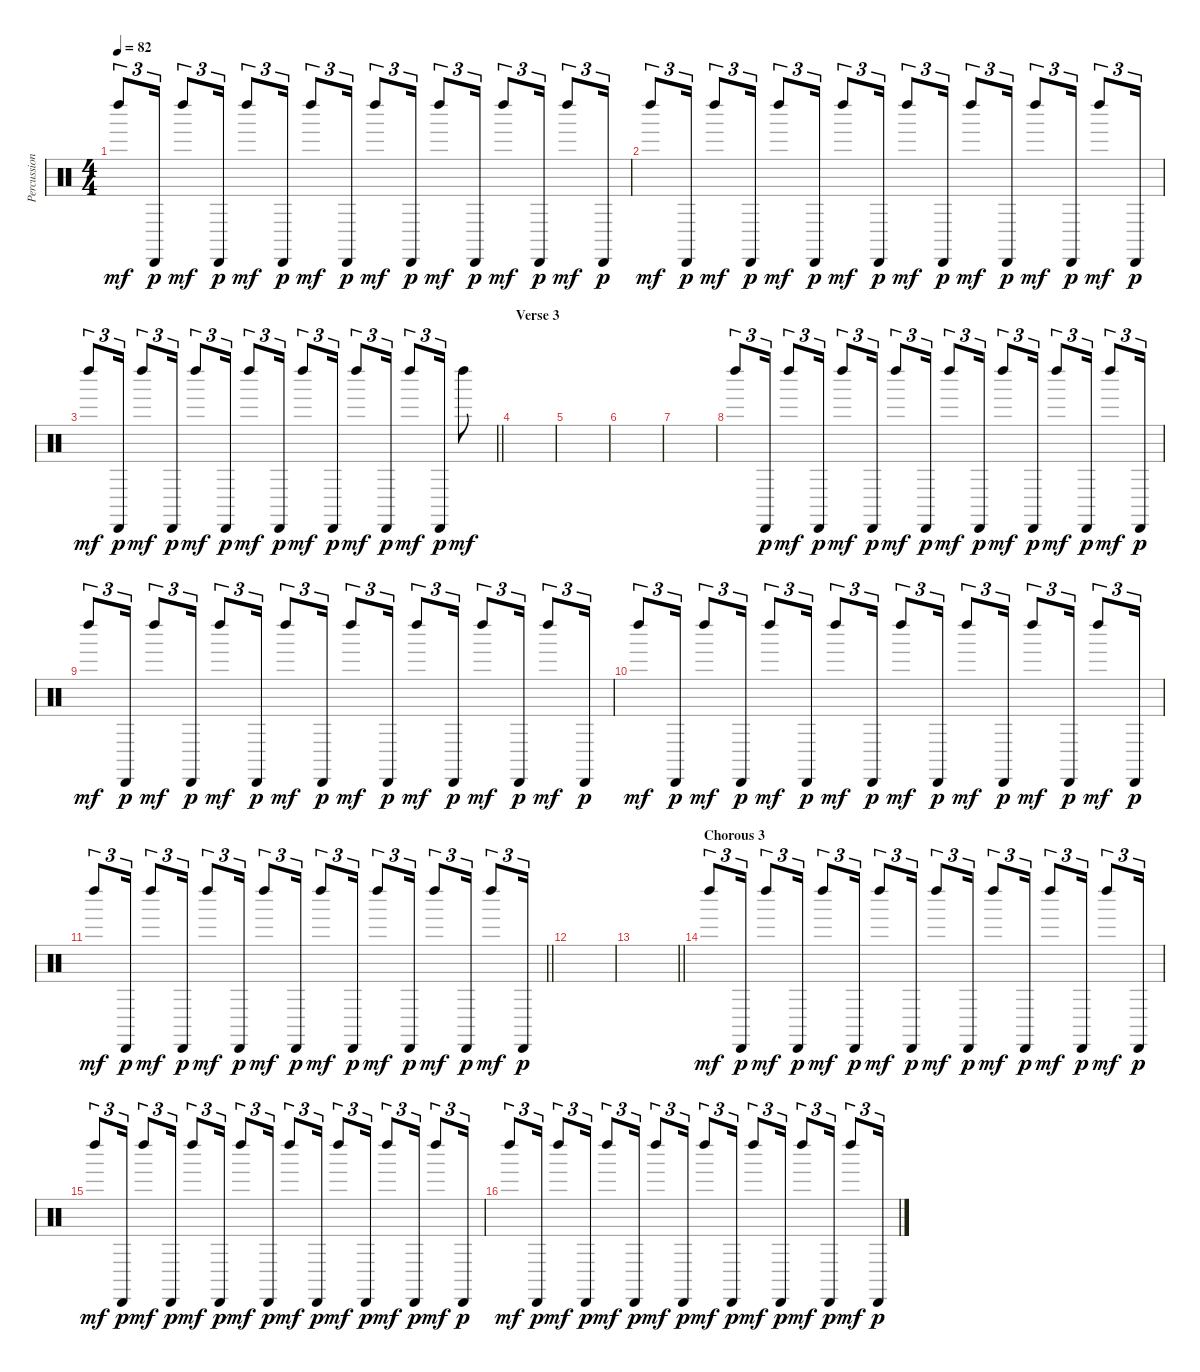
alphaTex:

\track ("Percussion" "Percussion") {instrument percussion}
\staff {score}
\articulation defaults
\ts (4 4)
\tempo 82
\clef neutral
\ks c "Left Maraca (hit)".8{tu (3 2) dy mf} "Cabasa (hit)".16{tu (3 2) dy p} "Left Maraca (hit)".8{tu (3 2) dy mf} "Cabasa (hit)".16{tu (3 2) dy p} "Left Maraca (hit)".8{tu (3 2) dy mf} "Cabasa (hit)".16{tu (3 2) dy p} "Left Maraca (hit)".8{tu (3 2) dy mf} "Cabasa (hit)".16{tu (3 2) dy p} "Left Maraca (hit)".8{tu (3 2) dy mf} "Cabasa (hit)".16{tu (3 2) dy p} "Left Maraca (hit)".8{tu (3 2) dy mf} "Cabasa (hit)".16{tu (3 2) dy p} "Left Maraca (hit)".8{tu (3 2) dy mf} "Cabasa (hit)".16{tu (3 2) dy p} "Left Maraca (hit)".8{tu (3 2) dy mf} "Cabasa (hit)".16{tu (3 2) dy p}
|
"Left Maraca (hit)".8{tu (3 2) dy mf} "Cabasa (hit)".16{tu (3 2) dy p} "Left Maraca (hit)".8{tu (3 2) dy mf} "Cabasa (hit)".16{tu (3 2) dy p} "Left Maraca (hit)".8{tu (3 2) dy mf} "Cabasa (hit)".16{tu (3 2) dy p} "Left Maraca (hit)".8{tu (3 2) dy mf} "Cabasa (hit)".16{tu (3 2) dy p} "Left Maraca (hit)".8{tu (3 2) dy mf} "Cabasa (hit)".16{tu (3 2) dy p} "Left Maraca (hit)".8{tu (3 2) dy mf} "Cabasa (hit)".16{tu (3 2) dy p} "Left Maraca (hit)".8{tu (3 2) dy mf} "Cabasa (hit)".16{tu (3 2) dy p} "Left Maraca (hit)".8{tu (3 2) dy mf} "Cabasa (hit)".16{tu (3 2) dy p} |
\barLineRight lightlight "Left Maraca (hit)".8{tu (3 2) dy mf} "Cabasa (hit)".16{tu (3 2) dy p} "Left Maraca (hit)".8{tu (3 2) dy mf} "Cabasa (hit)".16{tu (3 2) dy p} "Left Maraca (hit)".8{tu (3 2) dy mf} "Cabasa (hit)".16{tu (3 2) dy p} "Left Maraca (hit)".8{tu (3 2) dy mf} "Cabasa (hit)".16{tu (3 2) dy p} "Left Maraca (hit)".8{tu (3 2) dy mf} "Cabasa (hit)".16{tu (3 2) dy p} "Left Maraca (hit)".8{tu (3 2) dy mf} "Cabasa (hit)".16{tu (3 2) dy p} "Left Maraca (hit)".8{tu (3 2) dy mf} "Cabasa (hit)".16{tu (3 2) dy p} "Left Maraca (hit)".8{dy mf}
|
\section ("" "Verse 3")
|
|
|
|
"Left Maraca (hit)".8{tu (3 2)} "Cabasa (hit)".16{tu (3 2) dy p} "Left Maraca (hit)".8{tu (3 2) dy mf} "Cabasa (hit)".16{tu (3 2) dy p} "Left Maraca (hit)".8{tu (3 2) dy mf} "Cabasa (hit)".16{tu (3 2) dy p} "Left Maraca (hit)".8{tu (3 2) dy mf} "Cabasa (hit)".16{tu (3 2) dy p} "Left Maraca (hit)".8{tu (3 2) dy mf} "Cabasa (hit)".16{tu (3 2) dy p} "Left Maraca (hit)".8{tu (3 2) dy mf} "Cabasa (hit)".16{tu (3 2) dy p} "Left Maraca (hit)".8{tu (3 2) dy mf} "Cabasa (hit)".16{tu (3 2) dy p} "Left Maraca (hit)".8{tu (3 2) dy mf} "Cabasa (hit)".16{tu (3 2) dy p} |
"Left Maraca (hit)".8{tu (3 2) dy mf} "Cabasa (hit)".16{tu (3 2) dy p} "Left Maraca (hit)".8{tu (3 2) dy mf} "Cabasa (hit)".16{tu (3 2) dy p} "Left Maraca (hit)".8{tu (3 2) dy mf} "Cabasa (hit)".16{tu (3 2) dy p} "Left Maraca (hit)".8{tu (3 2) dy mf} "Cabasa (hit)".16{tu (3 2) dy p} "Left Maraca (hit)".8{tu (3 2) dy mf} "Cabasa (hit)".16{tu (3 2) dy p} "Left Maraca (hit)".8{tu (3 2) dy mf} "Cabasa (hit)".16{tu (3 2) dy p} "Left Maraca (hit)".8{tu (3 2) dy mf} "Cabasa (hit)".16{tu (3 2) dy p} "Left Maraca (hit)".8{tu (3 2) dy mf} "Cabasa (hit)".16{tu (3 2) dy p} |
"Left Maraca (hit)".8{tu (3 2) dy mf} "Cabasa (hit)".16{tu (3 2) dy p} "Left Maraca (hit)".8{tu (3 2) dy mf} "Cabasa (hit)".16{tu (3 2) dy p} "Left Maraca (hit)".8{tu (3 2) dy mf} "Cabasa (hit)".16{tu (3 2) dy p} "Left Maraca (hit)".8{tu (3 2) dy mf} "Cabasa (hit)".16{tu (3 2) dy p} "Left Maraca (hit)".8{tu (3 2) dy mf} "Cabasa (hit)".16{tu (3 2) dy p} "Left Maraca (hit)".8{tu (3 2) dy mf} "Cabasa (hit)".16{tu (3 2) dy p} "Left Maraca (hit)".8{tu (3 2) dy mf} "Cabasa (hit)".16{tu (3 2) dy p} "Left Maraca (hit)".8{tu (3 2) dy mf} "Cabasa (hit)".16{tu (3 2) dy p} |
\barLineRight lightlight "Left Maraca (hit)".8{tu (3 2) dy mf} "Cabasa (hit)".16{tu (3 2) dy p} "Left Maraca (hit)".8{tu (3 2) dy mf} "Cabasa (hit)".16{tu (3 2) dy p} "Left Maraca (hit)".8{tu (3 2) dy mf} "Cabasa (hit)".16{tu (3 2) dy p} "Left Maraca (hit)".8{tu (3 2) dy mf} "Cabasa (hit)".16{tu (3 2) dy p} "Left Maraca (hit)".8{tu (3 2) dy mf} "Cabasa (hit)".16{tu (3 2) dy p} "Left Maraca (hit)".8{tu (3 2) dy mf} "Cabasa (hit)".16{tu (3 2) dy p} "Left Maraca (hit)".8{tu (3 2) dy mf} "Cabasa (hit)".16{tu (3 2) dy p} "Left Maraca (hit)".8{tu (3 2) dy mf} "Cabasa (hit)".16{tu (3 2) dy p}
|
\section ("" "")
|
\barLineRight lightlight
|
\section ("" "Chorous 3")
"Left Maraca (hit)".8{tu (3 2) dy mf} "Cabasa (hit)".16{tu (3 2) dy p} "Left Maraca (hit)".8{tu (3 2) dy mf} "Cabasa (hit)".16{tu (3 2) dy p} "Left Maraca (hit)".8{tu (3 2) dy mf} "Cabasa (hit)".16{tu (3 2) dy p} "Left Maraca (hit)".8{tu (3 2) dy mf} "Cabasa (hit)".16{tu (3 2) dy p} "Left Maraca (hit)".8{tu (3 2) dy mf} "Cabasa (hit)".16{tu (3 2) dy p} "Left Maraca (hit)".8{tu (3 2) dy mf} "Cabasa (hit)".16{tu (3 2) dy p} "Left Maraca (hit)".8{tu (3 2) dy mf} "Cabasa (hit)".16{tu (3 2) dy p} "Left Maraca (hit)".8{tu (3 2) dy mf} "Cabasa (hit)".16{tu (3 2) dy p} |
"Left Maraca (hit)".8{tu (3 2) dy mf} "Cabasa (hit)".16{tu (3 2) dy p} "Left Maraca (hit)".8{tu (3 2) dy mf} "Cabasa (hit)".16{tu (3 2) dy p} "Left Maraca (hit)".8{tu (3 2) dy mf} "Cabasa (hit)".16{tu (3 2) dy p} "Left Maraca (hit)".8{tu (3 2) dy mf} "Cabasa (hit)".16{tu (3 2) dy p} "Left Maraca (hit)".8{tu (3 2) dy mf} "Cabasa (hit)".16{tu (3 2) dy p} "Left Maraca (hit)".8{tu (3 2) dy mf} "Cabasa (hit)".16{tu (3 2) dy p} "Left Maraca (hit)".8{tu (3 2) dy mf} "Cabasa (hit)".16{tu (3 2) dy p} "Left Maraca (hit)".8{tu (3 2) dy mf} "Cabasa (hit)".16{tu (3 2) dy p} |
"Left Maraca (hit)".8{tu (3 2) dy mf} "Cabasa (hit)".16{tu (3 2) dy p} "Left Maraca (hit)".8{tu (3 2) dy mf} "Cabasa (hit)".16{tu (3 2) dy p} "Left Maraca (hit)".8{tu (3 2) dy mf} "Cabasa (hit)".16{tu (3 2) dy p} "Left Maraca (hit)".8{tu (3 2) dy mf} "Cabasa (hit)".16{tu (3 2) dy p} "Left Maraca (hit)".8{tu (3 2) dy mf} "Cabasa (hit)".16{tu (3 2) dy p} "Left Maraca (hit)".8{tu (3 2) dy mf} "Cabasa (hit)".16{tu (3 2) dy p} "Left Maraca (hit)".8{tu (3 2) dy mf} "Cabasa (hit)".16{tu (3 2) dy p} "Left Maraca (hit)".8{tu (3 2) dy mf} "Cabasa (hit)".16{tu (3 2) dy p}
